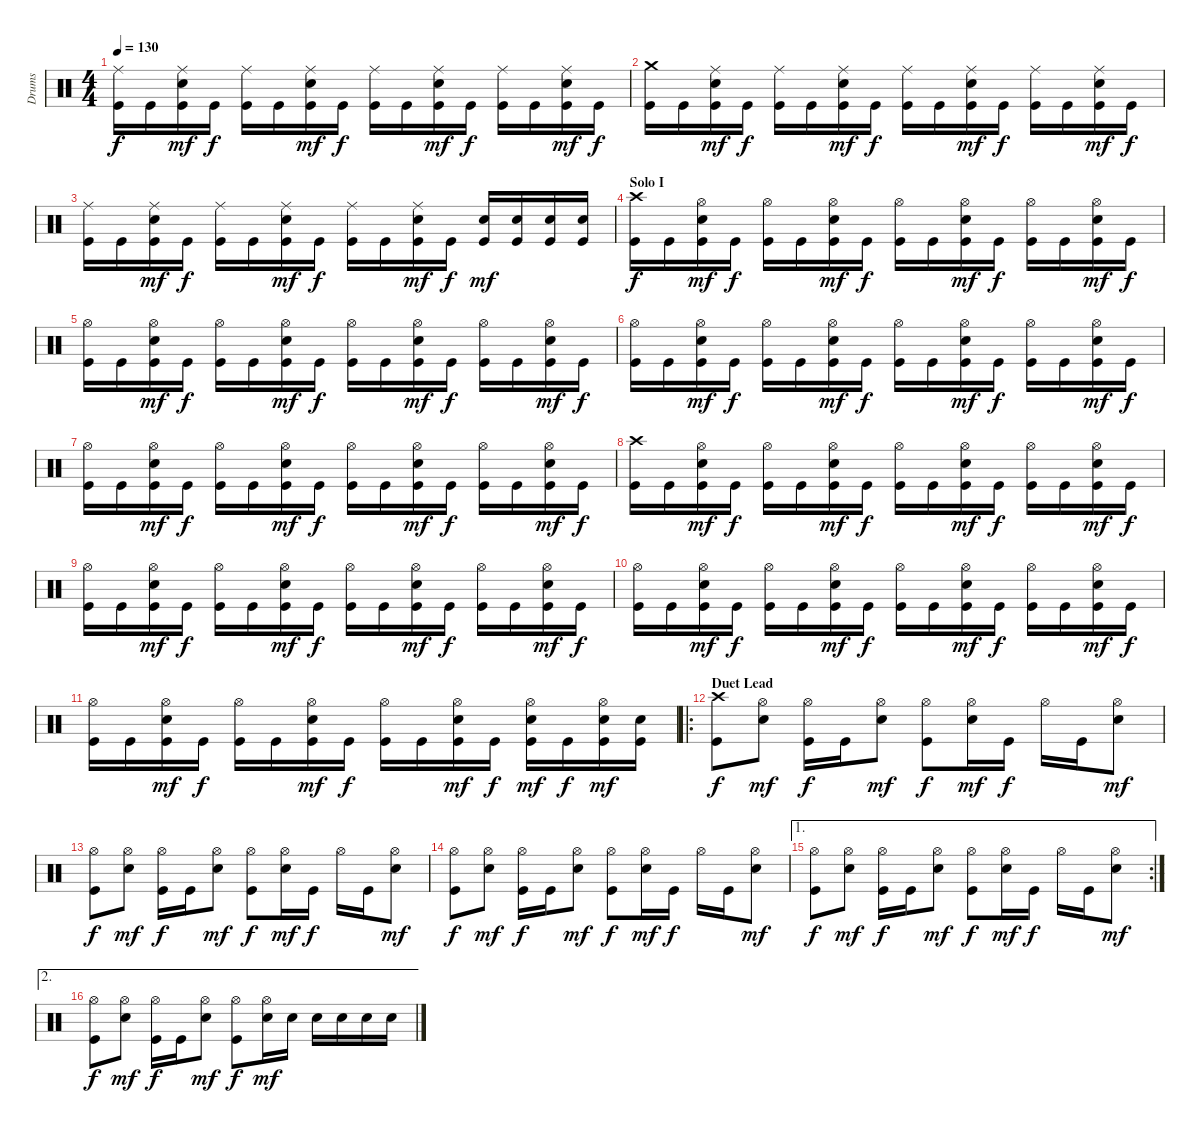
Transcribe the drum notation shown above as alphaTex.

\track ("Drums" "Drums") {instrument percussion}
\staff {score}
\articulation defaults
\ts (4 4)
\tempo 130
\clef neutral
\ks c
("Ride (middle)" "Kick (hit)").16{dy f} "Kick (hit)".16 ("Ride (middle)" "Snare (hit) 2" "Kick (hit)").16{dy mf} "Kick (hit)".16{dy f} ("Ride (middle)" "Kick (hit)").16 "Kick (hit)".16 ("Ride (middle)" "Snare (hit) 2" "Kick (hit)").16{dy mf} "Kick (hit)".16{dy f} ("Ride (middle)" "Kick (hit)").16 "Kick (hit)".16 ("Ride (middle)" "Snare (hit) 2" "Kick (hit)").16{dy mf} "Kick (hit)".16{dy f} ("Ride (middle)" "Kick (hit)").16 "Kick (hit)".16 ("Ride (middle)" "Snare (hit) 2" "Kick (hit)").16{dy mf} "Kick (hit)".16{dy f} |
("Crash medium (hit)" "Kick (hit)").16 "Kick (hit)".16 ("Ride (middle)" "Snare (hit) 2" "Kick (hit)").16{dy mf} "Kick (hit)".16{dy f} ("Ride (middle)" "Kick (hit)").16 "Kick (hit)".16 ("Ride (middle)" "Snare (hit) 2" "Kick (hit)").16{dy mf} "Kick (hit)".16{dy f} ("Ride (middle)" "Kick (hit)").16 "Kick (hit)".16 ("Ride (middle)" "Snare (hit) 2" "Kick (hit)").16{dy mf} "Kick (hit)".16{dy f} ("Ride (middle)" "Kick (hit)").16 "Kick (hit)".16 ("Ride (middle)" "Snare (hit) 2" "Kick (hit)").16{dy mf} "Kick (hit)".16{dy f} |
("Ride (middle)" "Kick (hit)").16 "Kick (hit)".16 ("Ride (middle)" "Snare (hit) 2" "Kick (hit)").16{dy mf} "Kick (hit)".16{dy f} ("Ride (middle)" "Kick (hit)").16 "Kick (hit)".16 ("Ride (middle)" "Snare (hit) 2" "Kick (hit)").16{dy mf} "Kick (hit)".16{dy f} ("Ride (middle)" "Kick (hit)").16 "Kick (hit)".16 ("Ride (middle)" "Snare (hit) 2" "Kick (hit)").16{dy mf} "Kick (hit)".16{dy f} ("Snare (hit) 2" "Kick (hit)").16{dy mf} ("Snare (hit) 2" "Kick (hit)").16 ("Snare (hit) 2" "Kick (hit)").16 ("Snare (hit) 2" "Kick (hit)").16 |
\section ("" "Solo I")
("Crash high (hit)" "Kick (hit)").16{dy f} "Kick (hit)".16 ("Hi-Hat (open)" "Snare (hit) 2" "Kick (hit)").16{dy mf} "Kick (hit)".16{dy f} ("Hi-Hat (open)" "Kick (hit)").16 "Kick (hit)".16 ("Hi-Hat (open)" "Snare (hit) 2" "Kick (hit)").16{dy mf} "Kick (hit)".16{dy f} ("Hi-Hat (open)" "Kick (hit)").16 "Kick (hit)".16 ("Hi-Hat (open)" "Snare (hit) 2" "Kick (hit)").16{dy mf} "Kick (hit)".16{dy f} ("Hi-Hat (open)" "Kick (hit)").16 "Kick (hit)".16 ("Hi-Hat (open)" "Snare (hit) 2" "Kick (hit)").16{dy mf} "Kick (hit)".16{dy f} |
("Hi-Hat (open)" "Kick (hit)").16 "Kick (hit)".16 ("Hi-Hat (open)" "Snare (hit) 2" "Kick (hit)").16{dy mf} "Kick (hit)".16{dy f} ("Hi-Hat (open)" "Kick (hit)").16 "Kick (hit)".16 ("Hi-Hat (open)" "Snare (hit) 2" "Kick (hit)").16{dy mf} "Kick (hit)".16{dy f} ("Hi-Hat (open)" "Kick (hit)").16 "Kick (hit)".16 ("Hi-Hat (open)" "Snare (hit) 2" "Kick (hit)").16{dy mf} "Kick (hit)".16{dy f} ("Hi-Hat (open)" "Kick (hit)").16 "Kick (hit)".16 ("Hi-Hat (open)" "Snare (hit) 2" "Kick (hit)").16{dy mf} "Kick (hit)".16{dy f} |
("Hi-Hat (open)" "Kick (hit)").16 "Kick (hit)".16 ("Hi-Hat (open)" "Snare (hit) 2" "Kick (hit)").16{dy mf} "Kick (hit)".16{dy f} ("Hi-Hat (open)" "Kick (hit)").16 "Kick (hit)".16 ("Hi-Hat (open)" "Snare (hit) 2" "Kick (hit)").16{dy mf} "Kick (hit)".16{dy f} ("Hi-Hat (open)" "Kick (hit)").16 "Kick (hit)".16 ("Hi-Hat (open)" "Snare (hit) 2" "Kick (hit)").16{dy mf} "Kick (hit)".16{dy f} ("Hi-Hat (open)" "Kick (hit)").16 "Kick (hit)".16 ("Hi-Hat (open)" "Snare (hit) 2" "Kick (hit)").16{dy mf} "Kick (hit)".16{dy f} |
("Hi-Hat (open)" "Kick (hit)").16 "Kick (hit)".16 ("Hi-Hat (open)" "Snare (hit) 2" "Kick (hit)").16{dy mf} "Kick (hit)".16{dy f} ("Hi-Hat (open)" "Kick (hit)").16 "Kick (hit)".16 ("Hi-Hat (open)" "Snare (hit) 2" "Kick (hit)").16{dy mf} "Kick (hit)".16{dy f} ("Hi-Hat (open)" "Kick (hit)").16 "Kick (hit)".16 ("Hi-Hat (open)" "Snare (hit) 2" "Kick (hit)").16{dy mf} "Kick (hit)".16{dy f} ("Hi-Hat (open)" "Kick (hit)").16 "Kick (hit)".16 ("Hi-Hat (open)" "Snare (hit) 2" "Kick (hit)").16{dy mf} "Kick (hit)".16{dy f} |
("Crash high (hit)" "Kick (hit)").16 "Kick (hit)".16 ("Hi-Hat (open)" "Snare (hit) 2" "Kick (hit)").16{dy mf} "Kick (hit)".16{dy f} ("Hi-Hat (open)" "Kick (hit)").16 "Kick (hit)".16 ("Hi-Hat (open)" "Snare (hit) 2" "Kick (hit)").16{dy mf} "Kick (hit)".16{dy f} ("Hi-Hat (open)" "Kick (hit)").16 "Kick (hit)".16 ("Hi-Hat (open)" "Snare (hit) 2" "Kick (hit)").16{dy mf} "Kick (hit)".16{dy f} ("Hi-Hat (open)" "Kick (hit)").16 "Kick (hit)".16 ("Hi-Hat (open)" "Snare (hit) 2" "Kick (hit)").16{dy mf} "Kick (hit)".16{dy f} |
("Hi-Hat (open)" "Kick (hit)").16 "Kick (hit)".16 ("Hi-Hat (open)" "Snare (hit) 2" "Kick (hit)").16{dy mf} "Kick (hit)".16{dy f} ("Hi-Hat (open)" "Kick (hit)").16 "Kick (hit)".16 ("Hi-Hat (open)" "Snare (hit) 2" "Kick (hit)").16{dy mf} "Kick (hit)".16{dy f} ("Hi-Hat (open)" "Kick (hit)").16 "Kick (hit)".16 ("Hi-Hat (open)" "Snare (hit) 2" "Kick (hit)").16{dy mf} "Kick (hit)".16{dy f} ("Hi-Hat (open)" "Kick (hit)").16 "Kick (hit)".16 ("Hi-Hat (open)" "Snare (hit) 2" "Kick (hit)").16{dy mf} "Kick (hit)".16{dy f} |
("Hi-Hat (open)" "Kick (hit)").16 "Kick (hit)".16 ("Hi-Hat (open)" "Snare (hit) 2" "Kick (hit)").16{dy mf} "Kick (hit)".16{dy f} ("Hi-Hat (open)" "Kick (hit)").16 "Kick (hit)".16 ("Hi-Hat (open)" "Snare (hit) 2" "Kick (hit)").16{dy mf} "Kick (hit)".16{dy f} ("Hi-Hat (open)" "Kick (hit)").16 "Kick (hit)".16 ("Hi-Hat (open)" "Snare (hit) 2" "Kick (hit)").16{dy mf} "Kick (hit)".16{dy f} ("Hi-Hat (open)" "Kick (hit)").16 "Kick (hit)".16 ("Hi-Hat (open)" "Snare (hit) 2" "Kick (hit)").16{dy mf} "Kick (hit)".16{dy f} |
("Hi-Hat (open)" "Kick (hit)").16 "Kick (hit)".16 ("Hi-Hat (open)" "Snare (hit) 2" "Kick (hit)").16{dy mf} "Kick (hit)".16{dy f} ("Hi-Hat (open)" "Kick (hit)").16 "Kick (hit)".16 ("Hi-Hat (open)" "Snare (hit) 2" "Kick (hit)").16{dy mf} "Kick (hit)".16{dy f} ("Hi-Hat (open)" "Kick (hit)").16 "Kick (hit)".16 ("Hi-Hat (open)" "Snare (hit) 2" "Kick (hit)").16{dy mf} "Kick (hit)".16{dy f} ("Hi-Hat (open)" "Snare (hit) 2" "Kick (hit)").16{dy mf} "Kick (hit)".16{dy f} ("Hi-Hat (open)" "Snare (hit) 2" "Kick (hit)").16{dy mf} ("Snare (hit) 2" "Kick (hit)").16 |
\ro
\section ("" "Duet Lead")
("Crash high (hit)" "Kick (hit)").8{dy f} ("Hi-Hat (open)" "Snare (hit) 2").8{dy mf} ("Hi-Hat (open)" "Kick (hit)").16{dy f} "Kick (hit)".16 ("Hi-Hat (open)" "Snare (hit) 2").8{dy mf} ("Hi-Hat (open)" "Kick (hit)").8{dy f} ("Hi-Hat (open)" "Snare (hit) 2").16{dy mf} "Kick (hit)".16{dy f} "Hi-Hat (open)".16 "Kick (hit)".16 ("Hi-Hat (open)" "Snare (hit) 2").8{dy mf} |
("Hi-Hat (open)" "Kick (hit)").8{dy f} ("Hi-Hat (open)" "Snare (hit) 2").8{dy mf} ("Hi-Hat (open)" "Kick (hit)").16{dy f} "Kick (hit)".16 ("Hi-Hat (open)" "Snare (hit) 2").8{dy mf} ("Hi-Hat (open)" "Kick (hit)").8{dy f} ("Hi-Hat (open)" "Snare (hit) 2").16{dy mf} "Kick (hit)".16{dy f} "Hi-Hat (open)".16 "Kick (hit)".16 ("Hi-Hat (open)" "Snare (hit) 2").8{dy mf} |
("Hi-Hat (open)" "Kick (hit)").8{dy f} ("Hi-Hat (open)" "Snare (hit) 2").8{dy mf} ("Hi-Hat (open)" "Kick (hit)").16{dy f} "Kick (hit)".16 ("Hi-Hat (open)" "Snare (hit) 2").8{dy mf} ("Hi-Hat (open)" "Kick (hit)").8{dy f} ("Hi-Hat (open)" "Snare (hit) 2").16{dy mf} "Kick (hit)".16{dy f} "Hi-Hat (open)".16 "Kick (hit)".16 ("Hi-Hat (open)" "Snare (hit) 2").8{dy mf} |
\ae 1
\rc 2
("Hi-Hat (open)" "Kick (hit)").8{dy f} ("Hi-Hat (open)" "Snare (hit) 2").8{dy mf} ("Hi-Hat (open)" "Kick (hit)").16{dy f} "Kick (hit)".16 ("Hi-Hat (open)" "Snare (hit) 2").8{dy mf} ("Hi-Hat (open)" "Kick (hit)").8{dy f} ("Hi-Hat (open)" "Snare (hit) 2").16{dy mf} "Kick (hit)".16{dy f} "Hi-Hat (open)".16 "Kick (hit)".16 ("Hi-Hat (open)" "Snare (hit) 2").8{dy mf} |
\ae 2
("Hi-Hat (open)" "Kick (hit)").8{dy f} ("Hi-Hat (open)" "Snare (hit) 2").8{dy mf} ("Hi-Hat (open)" "Kick (hit)").16{dy f} "Kick (hit)".16 ("Hi-Hat (open)" "Snare (hit) 2").8{dy mf} ("Hi-Hat (open)" "Kick (hit)").8{dy f} ("Hi-Hat (open)" "Snare (hit) 2").16{dy mf} "Snare (hit) 2".16 "Snare (hit) 2".16 "Snare (hit) 2".16 "Snare (hit) 2".16 "Snare (hit) 2".16
